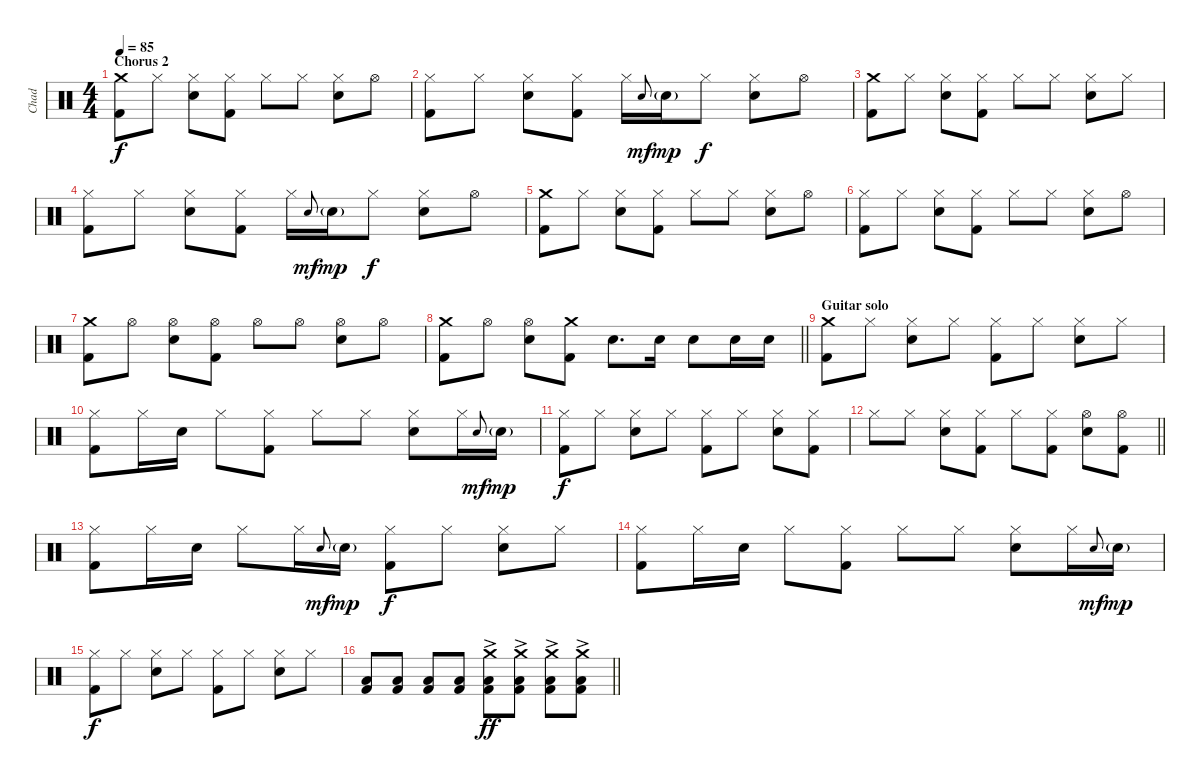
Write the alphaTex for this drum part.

\track ("Chad" "Chad") {instrument percussion}
\staff {score}
\articulation defaults
\ts (4 4)
\section ("" "Chorus 2")
\tempo 85
\clef neutral
\ks c
("Crash medium (hit)" "Kick (hit) 2").8{dy f} "Hi-Hat (closed)".8 ("Electric Snare (hit)" "Hi-Hat (closed)").8 ("Hi-Hat (closed)" "Kick (hit) 2").8 "Hi-Hat (closed)".8 "Hi-Hat (closed)".8 ("Electric Snare (hit)" "Hi-Hat (closed)").8 "Hi-Hat (open)".8 |
("Hi-Hat (closed)" "Kick (hit) 2").8 "Hi-Hat (closed)".8 ("Electric Snare (hit)" "Hi-Hat (closed)").8 ("Hi-Hat (closed)" "Kick (hit) 2").8 "Hi-Hat (closed)".16 "Electric Snare (hit)".8{gr onbeat dy mf} "Electric Snare (hit)"{g}.16{dy mp} "Hi-Hat (closed)".8{dy f} ("Electric Snare (hit)" "Hi-Hat (closed)").8 "Hi-Hat (open)".8 |
("Crash medium (hit)" "Kick (hit) 2").8 "Hi-Hat (closed)".8 ("Electric Snare (hit)" "Hi-Hat (closed)").8 ("Hi-Hat (closed)" "Kick (hit) 2").8 "Hi-Hat (closed)".8 "Hi-Hat (closed)".8 ("Electric Snare (hit)" "Hi-Hat (closed)").8 "Hi-Hat (closed)".8 |
("Hi-Hat (closed)" "Kick (hit) 2").8 "Hi-Hat (closed)".8 ("Electric Snare (hit)" "Hi-Hat (closed)").8 ("Hi-Hat (closed)" "Kick (hit) 2").8 "Hi-Hat (closed)".16 "Electric Snare (hit)".8{gr onbeat dy mf} "Electric Snare (hit)"{g}.16{dy mp} "Hi-Hat (closed)".8{dy f} ("Electric Snare (hit)" "Hi-Hat (closed)").8 "Hi-Hat (open)".8 |
("Crash medium (hit)" "Kick (hit) 2").8 "Hi-Hat (closed)".8 ("Electric Snare (hit)" "Hi-Hat (closed)").8 ("Hi-Hat (closed)" "Kick (hit) 2").8 "Hi-Hat (closed)".8 "Hi-Hat (closed)".8 ("Electric Snare (hit)" "Hi-Hat (closed)").8 "Hi-Hat (open)".8 |
("Hi-Hat (closed)" "Kick (hit) 2").8 "Hi-Hat (closed)".8 ("Electric Snare (hit)" "Hi-Hat (closed)").8 ("Hi-Hat (closed)" "Kick (hit) 2").8 "Hi-Hat (closed)".8 "Hi-Hat (closed)".8 ("Electric Snare (hit)" "Hi-Hat (closed)").8 "Hi-Hat (open)".8 |
("Crash medium (hit)" "Kick (hit) 2").8 "Hi-Hat (open)".8 ("Electric Snare (hit)" "Hi-Hat (open)").8 ("Hi-Hat (open)" "Kick (hit) 2").8 "Hi-Hat (open)".8 "Hi-Hat (open)".8 ("Electric Snare (hit)" "Hi-Hat (open)").8 "Hi-Hat (open)".8 |
\barLineRight lightlight
("Crash medium (hit)" "Kick (hit) 2").8 "Hi-Hat (open)".8 ("Electric Snare (hit)" "Hi-Hat (open)").8 ("Crash medium (hit)" "Kick (hit) 2").8 "Electric Snare (hit)".8{d} "Electric Snare (hit)".16 "Electric Snare (hit)".8 "Electric Snare (hit)".16 "Electric Snare (hit)".16 |
\section ("" "Guitar solo")
("Crash medium (hit)" "Kick (hit) 2").8 "Hi-Hat (closed)".8 ("Electric Snare (hit)" "Hi-Hat (closed)").8 "Hi-Hat (closed)".8 ("Hi-Hat (closed)" "Kick (hit) 2").8 "Hi-Hat (closed)".8 ("Electric Snare (hit)" "Hi-Hat (closed)").8 "Hi-Hat (closed)".8 |
("Hi-Hat (closed)" "Kick (hit) 2").8 "Hi-Hat (closed)".16 "Electric Snare (hit)".16 "Hi-Hat (closed)".8 ("Hi-Hat (closed)" "Kick (hit) 2").8 "Hi-Hat (closed)".8 "Hi-Hat (closed)".8 ("Electric Snare (hit)" "Hi-Hat (closed)").8 "Hi-Hat (closed)".16 "Electric Snare (hit)".8{gr onbeat dy mf} "Electric Snare (hit)"{g}.16{dy mp} |
("Hi-Hat (closed)" "Kick (hit) 2").8{dy f} "Hi-Hat (closed)".8 ("Electric Snare (hit)" "Hi-Hat (closed)").8 "Hi-Hat (closed)".8 ("Hi-Hat (closed)" "Kick (hit) 2").8 "Hi-Hat (closed)".8 ("Electric Snare (hit)" "Hi-Hat (closed)").8 ("Hi-Hat (closed)" "Kick (hit) 2").8 |
\barLineRight lightlight "Hi-Hat (closed)".8 "Hi-Hat (closed)".8
("Electric Snare (hit)" "Hi-Hat (closed)").8 ("Hi-Hat (closed)" "Kick (hit) 2").8 "Hi-Hat (closed)".8 ("Hi-Hat (closed)" "Kick (hit) 2").8 ("Electric Snare (hit)" "Hi-Hat (open)").8 ("Hi-Hat (open)" "Kick (hit) 2").8 |
("Hi-Hat (closed)" "Kick (hit) 2").8 "Hi-Hat (closed)".16 "Electric Snare (hit)".16 "Hi-Hat (closed)".8 "Hi-Hat (closed)".16 "Electric Snare (hit)".8{gr onbeat dy mf} "Electric Snare (hit)"{g}.16{dy mp} ("Hi-Hat (closed)" "Kick (hit) 2").8{dy f} "Hi-Hat (closed)".8 ("Electric Snare (hit)" "Hi-Hat (closed)").8 "Hi-Hat (closed)".8 |
("Hi-Hat (closed)" "Kick (hit) 2").8 "Hi-Hat (closed)".16 "Electric Snare (hit)".16 "Hi-Hat (closed)".8 ("Hi-Hat (closed)" "Kick (hit) 2").8 "Hi-Hat (closed)".8 "Hi-Hat (closed)".8 ("Electric Snare (hit)" "Hi-Hat (closed)").8 "Hi-Hat (closed)".16 "Electric Snare (hit)".8{gr onbeat dy mf} "Electric Snare (hit)"{g}.16{dy mp} |
("Hi-Hat (closed)" "Kick (hit) 2").8{dy f} "Hi-Hat (closed)".8 ("Electric Snare (hit)" "Hi-Hat (closed)").8 "Hi-Hat (closed)".8 ("Hi-Hat (closed)" "Kick (hit) 2").8 "Hi-Hat (closed)".8 ("Electric Snare (hit)" "Hi-Hat (closed)").8 "Hi-Hat (closed)".8 |
\barLineRight lightlight
("Low Tom (hit)" "Kick (hit) 2").8 ("Low Tom (hit)" "Kick (hit) 2").8 ("Low Tom (hit)" "Kick (hit) 2").8 ("Low Tom (hit)" "Kick (hit) 2").8 ("Crash medium (hit)"{ac} "Low Tom (hit)"{ac} "Kick (hit) 2"{ac}).8{dy ff} ("Crash medium (hit)"{ac} "Low Tom (hit)"{ac} "Kick (hit) 2"{ac}).8 ("Crash medium (hit)"{ac} "Low Tom (hit)"{ac} "Kick (hit) 2"{ac}).8 ("Crash medium (hit)"{ac} "Low Tom (hit)"{ac} "Kick (hit) 2"{ac}).8
